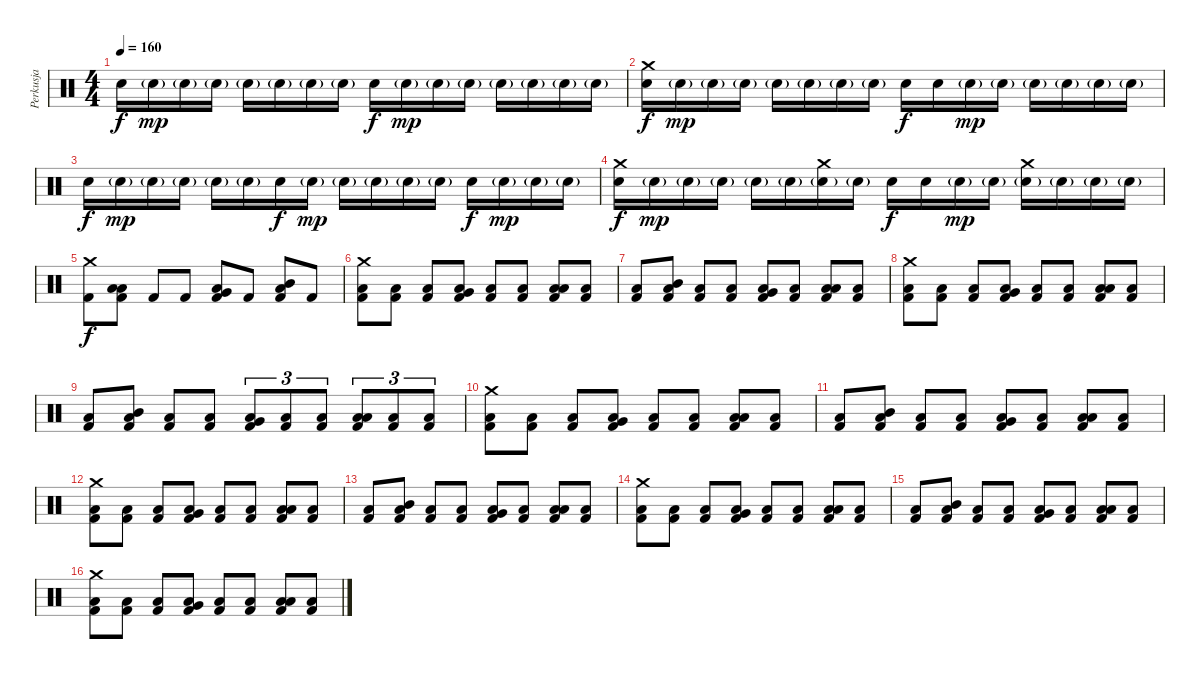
\track ("Perkusja" "Perkusja") {instrument percussion}
\staff {score}
\articulation defaults
\ts (4 4)
\tempo 160
\clef neutral
\ks c "Electric Snare (hit)".16{dy f} "Electric Snare (hit)"{g}.16{dy mp} "Electric Snare (hit)"{g}.16 "Electric Snare (hit)"{g}.16 "Electric Snare (hit)"{g}.16 "Electric Snare (hit)"{g}.16 "Electric Snare (hit)"{g}.16 "Electric Snare (hit)"{g}.16 "Electric Snare (hit)".16{dy f} "Electric Snare (hit)"{g}.16{dy mp} "Electric Snare (hit)"{g}.16 "Electric Snare (hit)"{g}.16 "Electric Snare (hit)"{g}.16 "Electric Snare (hit)"{g}.16 "Electric Snare (hit)"{g}.16 "Electric Snare (hit)"{g}.16
|
("Crash medium (hit)" "Electric Snare (hit)").16{dy f} "Electric Snare (hit)"{g}.16{dy mp} "Electric Snare (hit)"{g}.16 "Electric Snare (hit)"{g}.16 "Electric Snare (hit)"{g}.16 "Electric Snare (hit)"{g}.16 "Electric Snare (hit)"{g}.16 "Electric Snare (hit)"{g}.16 "Electric Snare (hit)".16{dy f} "Electric Snare (hit)".16 "Electric Snare (hit)"{g}.16{dy mp} "Electric Snare (hit)"{g}.16 "Electric Snare (hit)"{g}.16 "Electric Snare (hit)"{g}.16 "Electric Snare (hit)"{g}.16 "Electric Snare (hit)"{g}.16 |
"Electric Snare (hit)".16{dy f} "Electric Snare (hit)"{g}.16{dy mp} "Electric Snare (hit)"{g}.16 "Electric Snare (hit)"{g}.16 "Electric Snare (hit)"{g}.16 "Electric Snare (hit)"{g}.16 "Electric Snare (hit)".16{dy f} "Electric Snare (hit)"{g}.16{dy mp} "Electric Snare (hit)"{g}.16 "Electric Snare (hit)"{g}.16 "Electric Snare (hit)"{g}.16 "Electric Snare (hit)"{g}.16 "Electric Snare (hit)".16{dy f} "Electric Snare (hit)"{g}.16{dy mp} "Electric Snare (hit)"{g}.16 "Electric Snare (hit)"{g}.16 |
("Crash medium (hit)" "Electric Snare (hit)").16{dy f} "Electric Snare (hit)"{g}.16{dy mp} "Electric Snare (hit)"{g}.16 "Electric Snare (hit)"{g}.16 "Electric Snare (hit)"{g}.16 "Electric Snare (hit)"{g}.16 ("Crash medium (hit)" "Electric Snare (hit)"{g}).16 "Electric Snare (hit)"{g}.16 "Electric Snare (hit)".16{dy f} "Electric Snare (hit)".16 "Electric Snare (hit)"{g}.16{dy mp} "Electric Snare (hit)"{g}.16 ("Crash medium (hit)" "Electric Snare (hit)"{g}).16 "Electric Snare (hit)"{g}.16 "Electric Snare (hit)"{g}.16 "Electric Snare (hit)"{g}.16 |
("Crash medium (hit)" "Kick (hit) 2").8{dy f} ("Low Tom (hit)" "Low Floor Tom (hit)" "Kick (hit) 2").8 "Kick (hit) 2".8 "Kick (hit) 2".8 ("Very Low Tom (hit)" "Low Floor Tom (hit)" "Kick (hit) 2").8 "Kick (hit) 2".8 ("Mid Tom (hit)" "Low Floor Tom (hit)" "Kick (hit) 2").8 "Kick (hit) 2".8 |
("Crash medium (hit)" "Low Floor Tom (hit)" "Kick (hit) 2").8 ("Low Floor Tom (hit)" "Kick (hit) 2").8 ("Low Floor Tom (hit)" "Kick (hit) 2").8 ("Very Low Tom (hit)" "Low Floor Tom (hit)" "Kick (hit) 2").8 ("Low Floor Tom (hit)" "Kick (hit) 2").8 ("Low Floor Tom (hit)" "Kick (hit) 2").8 ("Low Tom (hit)" "Low Floor Tom (hit)" "Kick (hit) 2").8 ("Low Floor Tom (hit)" "Kick (hit) 2").8 |
("Low Floor Tom (hit)" "Kick (hit) 2").8 ("Mid Tom (hit)" "Low Floor Tom (hit)" "Kick (hit) 2").8 ("Low Floor Tom (hit)" "Kick (hit) 2").8 ("Low Floor Tom (hit)" "Kick (hit) 2").8 ("Very Low Tom (hit)" "Low Floor Tom (hit)" "Kick (hit) 2").8 ("Low Floor Tom (hit)" "Kick (hit) 2").8 ("Low Tom (hit)" "Low Floor Tom (hit)" "Kick (hit) 2").8 ("Low Floor Tom (hit)" "Kick (hit) 2").8 |
("Crash medium (hit)" "Low Floor Tom (hit)" "Kick (hit) 2").8 ("Low Floor Tom (hit)" "Kick (hit) 2").8 ("Low Floor Tom (hit)" "Kick (hit) 2").8 ("Very Low Tom (hit)" "Low Floor Tom (hit)" "Kick (hit) 2").8 ("Low Floor Tom (hit)" "Kick (hit) 2").8 ("Low Floor Tom (hit)" "Kick (hit) 2").8 ("Low Tom (hit)" "Low Floor Tom (hit)" "Kick (hit) 2").8 ("Low Floor Tom (hit)" "Kick (hit) 2").8 |
("Low Floor Tom (hit)" "Kick (hit) 2").8 ("Mid Tom (hit)" "Low Floor Tom (hit)" "Kick (hit) 2").8 ("Low Floor Tom (hit)" "Kick (hit) 2").8 ("Low Floor Tom (hit)" "Kick (hit) 2").8 ("Very Low Tom (hit)" "Low Floor Tom (hit)" "Kick (hit) 2").8{tu (3 2)} ("Low Floor Tom (hit)" "Kick (hit) 2").8{tu (3 2)} ("Low Floor Tom (hit)" "Kick (hit) 2").8{tu (3 2)} ("Low Tom (hit)" "Low Floor Tom (hit)" "Kick (hit) 2").8{tu (3 2)} ("Low Floor Tom (hit)" "Kick (hit) 2").8{tu (3 2)} ("Low Floor Tom (hit)" "Kick (hit) 2").8{tu (3 2)} |
("Crash medium (hit)" "Low Floor Tom (hit)" "Kick (hit) 2").8 ("Low Floor Tom (hit)" "Kick (hit) 2").8 ("Low Floor Tom (hit)" "Kick (hit) 2").8 ("Very Low Tom (hit)" "Low Floor Tom (hit)" "Kick (hit) 2").8 ("Low Floor Tom (hit)" "Kick (hit) 2").8 ("Low Floor Tom (hit)" "Kick (hit) 2").8 ("Low Tom (hit)" "Low Floor Tom (hit)" "Kick (hit) 2").8 ("Low Floor Tom (hit)" "Kick (hit) 2").8 |
("Low Floor Tom (hit)" "Kick (hit) 2").8 ("Mid Tom (hit)" "Low Floor Tom (hit)" "Kick (hit) 2").8 ("Low Floor Tom (hit)" "Kick (hit) 2").8 ("Low Floor Tom (hit)" "Kick (hit) 2").8 ("Very Low Tom (hit)" "Low Floor Tom (hit)" "Kick (hit) 2").8 ("Low Floor Tom (hit)" "Kick (hit) 2").8 ("Low Tom (hit)" "Low Floor Tom (hit)" "Kick (hit) 2").8 ("Low Floor Tom (hit)" "Kick (hit) 2").8 |
("Crash medium (hit)" "Low Floor Tom (hit)" "Kick (hit) 2").8 ("Low Floor Tom (hit)" "Kick (hit) 2").8 ("Low Floor Tom (hit)" "Kick (hit) 2").8 ("Very Low Tom (hit)" "Low Floor Tom (hit)" "Kick (hit) 2").8 ("Low Floor Tom (hit)" "Kick (hit) 2").8 ("Low Floor Tom (hit)" "Kick (hit) 2").8 ("Low Tom (hit)" "Low Floor Tom (hit)" "Kick (hit) 2").8 ("Low Floor Tom (hit)" "Kick (hit) 2").8 |
("Low Floor Tom (hit)" "Kick (hit) 2").8 ("Mid Tom (hit)" "Low Floor Tom (hit)" "Kick (hit) 2").8 ("Low Floor Tom (hit)" "Kick (hit) 2").8 ("Low Floor Tom (hit)" "Kick (hit) 2").8 ("Very Low Tom (hit)" "Low Floor Tom (hit)" "Kick (hit) 2").8 ("Low Floor Tom (hit)" "Kick (hit) 2").8 ("Low Tom (hit)" "Low Floor Tom (hit)" "Kick (hit) 2").8 ("Low Floor Tom (hit)" "Kick (hit) 2").8 |
("Crash medium (hit)" "Low Floor Tom (hit)" "Kick (hit) 2").8 ("Low Floor Tom (hit)" "Kick (hit) 2").8 ("Low Floor Tom (hit)" "Kick (hit) 2").8 ("Very Low Tom (hit)" "Low Floor Tom (hit)" "Kick (hit) 2").8 ("Low Floor Tom (hit)" "Kick (hit) 2").8 ("Low Floor Tom (hit)" "Kick (hit) 2").8 ("Low Tom (hit)" "Low Floor Tom (hit)" "Kick (hit) 2").8 ("Low Floor Tom (hit)" "Kick (hit) 2").8 |
("Low Floor Tom (hit)" "Kick (hit) 2").8 ("Mid Tom (hit)" "Low Floor Tom (hit)" "Kick (hit) 2").8 ("Low Floor Tom (hit)" "Kick (hit) 2").8 ("Low Floor Tom (hit)" "Kick (hit) 2").8 ("Very Low Tom (hit)" "Low Floor Tom (hit)" "Kick (hit) 2").8 ("Low Floor Tom (hit)" "Kick (hit) 2").8 ("Low Tom (hit)" "Low Floor Tom (hit)" "Kick (hit) 2").8 ("Low Floor Tom (hit)" "Kick (hit) 2").8 |
("Crash medium (hit)" "Low Floor Tom (hit)" "Kick (hit) 2").8 ("Low Floor Tom (hit)" "Kick (hit) 2").8 ("Low Floor Tom (hit)" "Kick (hit) 2").8 ("Very Low Tom (hit)" "Low Floor Tom (hit)" "Kick (hit) 2").8 ("Low Floor Tom (hit)" "Kick (hit) 2").8 ("Low Floor Tom (hit)" "Kick (hit) 2").8 ("Low Tom (hit)" "Low Floor Tom (hit)" "Kick (hit) 2").8 ("Low Floor Tom (hit)" "Kick (hit) 2").8
